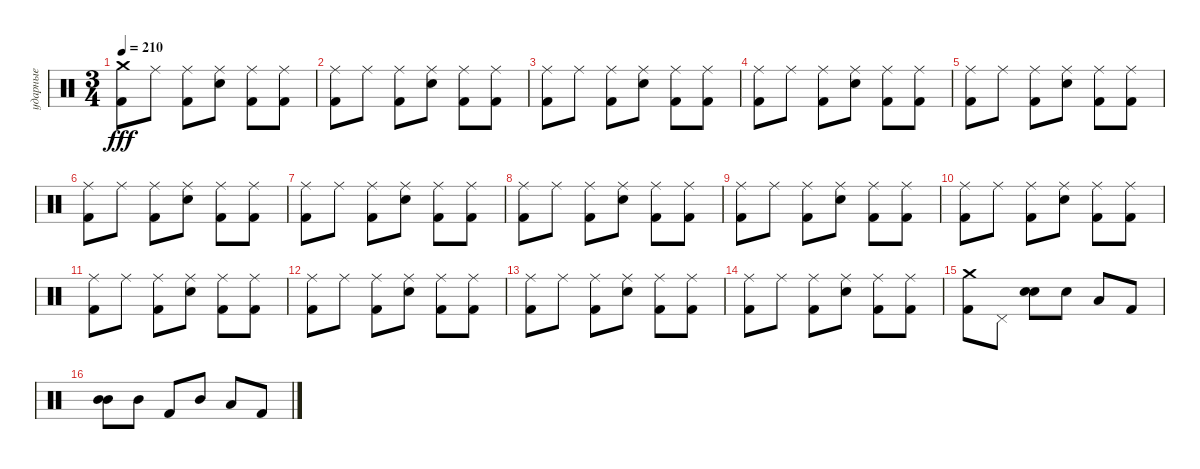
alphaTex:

\track ("ударные" "ударные") {instrument percussion}
\staff {score}
\articulation defaults
\ts (3 4)
\tempo 210
\clef neutral
\ks c
("Crash medium (hit)" "Kick (hit) 2").8{dy fff} "Ride (middle)".8 ("Ride (middle)" "Kick (hit) 2").8 ("Ride (middle)" "Snare (hit) 2").8 ("Ride (middle)" "Kick (hit) 2").8 ("Ride (middle)" "Kick (hit) 2").8 |
("Ride (middle)" "Kick (hit) 2").8 "Ride (middle)".8 ("Ride (middle)" "Kick (hit) 2").8 ("Ride (middle)" "Snare (hit) 2").8 ("Ride (middle)" "Kick (hit) 2").8 ("Ride (middle)" "Kick (hit) 2").8 |
("Ride (middle)" "Kick (hit) 2").8 "Ride (middle)".8 ("Ride (middle)" "Kick (hit) 2").8 ("Ride (middle)" "Snare (hit) 2").8 ("Ride (middle)" "Kick (hit) 2").8 ("Ride (middle)" "Kick (hit) 2").8 |
("Ride (middle)" "Kick (hit) 2").8 "Ride (middle)".8 ("Ride (middle)" "Kick (hit) 2").8 ("Ride (middle)" "Snare (hit) 2").8 ("Ride (middle)" "Kick (hit) 2").8 ("Ride (middle)" "Kick (hit) 2").8 |
("Ride (middle)" "Kick (hit) 2").8 "Ride (middle)".8 ("Ride (middle)" "Kick (hit) 2").8 ("Ride (middle)" "Snare (hit) 2").8 ("Ride (middle)" "Kick (hit) 2").8 ("Ride (middle)" "Kick (hit) 2").8 |
("Ride (middle)" "Kick (hit) 2").8 "Ride (middle)".8 ("Ride (middle)" "Kick (hit) 2").8 ("Ride (middle)" "Snare (hit) 2").8 ("Ride (middle)" "Kick (hit) 2").8 ("Ride (middle)" "Kick (hit) 2").8 |
("Ride (middle)" "Kick (hit) 2").8 "Ride (middle)".8 ("Ride (middle)" "Kick (hit) 2").8 ("Ride (middle)" "Snare (hit) 2").8 ("Ride (middle)" "Kick (hit) 2").8 ("Ride (middle)" "Kick (hit) 2").8 |
("Ride (middle)" "Kick (hit) 2").8 "Ride (middle)".8 ("Ride (middle)" "Kick (hit) 2").8 ("Ride (middle)" "Snare (hit) 2").8 ("Ride (middle)" "Kick (hit) 2").8 ("Ride (middle)" "Kick (hit) 2").8 |
("Ride (middle)" "Kick (hit) 2").8 "Ride (middle)".8 ("Ride (middle)" "Kick (hit) 2").8 ("Ride (middle)" "Snare (hit) 2").8 ("Ride (middle)" "Kick (hit) 2").8 ("Ride (middle)" "Kick (hit) 2").8 |
("Ride (middle)" "Kick (hit) 2").8 "Ride (middle)".8 ("Ride (middle)" "Kick (hit) 2").8 ("Ride (middle)" "Snare (hit) 2").8 ("Ride (middle)" "Kick (hit) 2").8 ("Ride (middle)" "Kick (hit) 2").8 |
("Ride (middle)" "Kick (hit) 2").8 "Ride (middle)".8 ("Ride (middle)" "Kick (hit) 2").8 ("Ride (middle)" "Snare (hit) 2").8 ("Ride (middle)" "Kick (hit) 2").8 ("Ride (middle)" "Kick (hit) 2").8 |
("Ride (middle)" "Kick (hit) 2").8 "Ride (middle)".8 ("Ride (middle)" "Kick (hit) 2").8 ("Ride (middle)" "Snare (hit) 2").8 ("Ride (middle)" "Kick (hit) 2").8 ("Ride (middle)" "Kick (hit) 2").8 |
("Ride (middle)" "Kick (hit) 2").8 "Ride (middle)".8 ("Ride (middle)" "Kick (hit) 2").8 ("Ride (middle)" "Snare (hit) 2").8 ("Ride (middle)" "Kick (hit) 2").8 ("Ride (middle)" "Kick (hit) 2").8 |
("Ride (middle)" "Kick (hit) 2").8 "Ride (middle)".8 ("Ride (middle)" "Kick (hit) 2").8 ("Ride (middle)" "Snare (hit) 2").8 ("Ride (middle)" "Kick (hit) 2").8 ("Ride (middle)" "Kick (hit) 2").8 |
("Crash medium (hit)" "Kick (hit) 2").8 "Pedal Hi-Hat (hit)".8 ("Snare (hit) 2" "Snare (hit) 2").8{bd 60} "Snare (hit) 2".8 "Low Tom (hit)".8 "Kick (hit) 2".8 |
("Mid Tom (hit)" "Mid Tom (hit)").8{bd 60} "Mid Tom (hit)".8 "Kick (hit) 2".8 "Mid Tom (hit)".8 "Low Tom (hit)".8 "Kick (hit) 2".8
